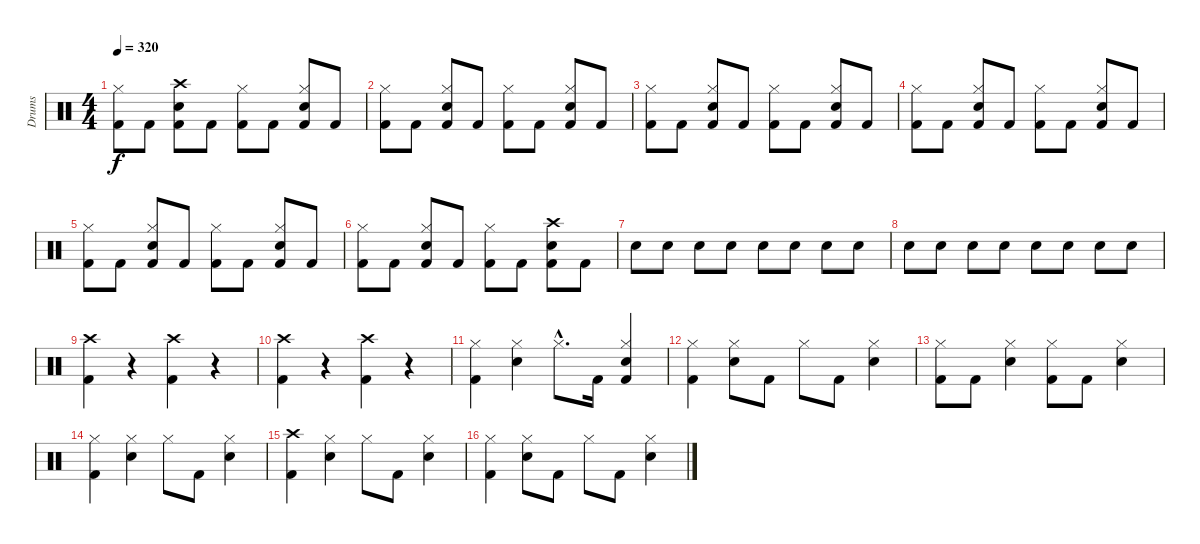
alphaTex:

\track ("Drums" "Drums") {instrument percussion}
\staff {score}
\articulation defaults
\ts (4 4)
\tempo 320
\clef neutral
\ks c
("Kick (hit) 2" "Hi-Hat (closed)").8{dy f} "Kick (hit) 2".8 ("Snare (hit) 2" "Crash high (hit)" "Kick (hit) 2").8 "Kick (hit) 2".8 ("Hi-Hat (closed)" "Kick (hit) 2").8 "Kick (hit) 2".8 ("Snare (hit) 2" "Kick (hit) 2" "Hi-Hat (closed)").8 "Kick (hit) 2".8 |
("Hi-Hat (closed)" "Kick (hit) 2").8 "Kick (hit) 2".8 ("Snare (hit) 2" "Hi-Hat (closed)" "Kick (hit) 2").8 "Kick (hit) 2".8 ("Kick (hit) 2" "Hi-Hat (closed)").8 "Kick (hit) 2".8 ("Kick (hit) 2" "Snare (hit) 2" "Hi-Hat (closed)").8 "Kick (hit) 2".8 |
("Kick (hit) 2" "Hi-Hat (closed)").8 "Kick (hit) 2".8 ("Hi-Hat (closed)" "Snare (hit) 2" "Kick (hit) 2").8 "Kick (hit) 2".8 ("Hi-Hat (closed)" "Kick (hit) 2").8 "Kick (hit) 2".8 ("Kick (hit) 2" "Hi-Hat (closed)" "Snare (hit) 2").8 "Kick (hit) 2".8 |
("Kick (hit) 2" "Hi-Hat (closed)").8 "Kick (hit) 2".8 ("Hi-Hat (closed)" "Snare (hit) 2" "Kick (hit) 2").8 "Kick (hit) 2".8 ("Hi-Hat (closed)" "Kick (hit) 2").8 "Kick (hit) 2".8 ("Kick (hit) 2" "Snare (hit) 2" "Hi-Hat (closed)").8 "Kick (hit) 2".8 |
("Kick (hit) 2" "Hi-Hat (closed)").8 "Kick (hit) 2".8 ("Snare (hit) 2" "Kick (hit) 2" "Hi-Hat (closed)").8 "Kick (hit) 2".8 ("Hi-Hat (closed)" "Kick (hit) 2").8 "Kick (hit) 2".8 ("Hi-Hat (closed)" "Kick (hit) 2" "Snare (hit) 2").8 "Kick (hit) 2".8 |
("Kick (hit) 2" "Hi-Hat (closed)").8 "Kick (hit) 2".8 ("Snare (hit) 2" "Kick (hit) 2" "Hi-Hat (closed)").8 "Kick (hit) 2".8 ("Hi-Hat (closed)" "Kick (hit) 2").8 "Kick (hit) 2".8 ("Snare (hit) 2" "Crash high (hit)" "Kick (hit) 2").8 "Kick (hit) 2".8 |
"Snare (hit) 2".8 "Snare (hit) 2".8 "Snare (hit) 2".8 "Snare (hit) 2".8 "Snare (hit) 2".8 "Snare (hit) 2".8 "Snare (hit) 2".8 "Snare (hit) 2".8 |
"Snare (hit) 2".8 "Snare (hit) 2".8 "Snare (hit) 2".8 "Snare (hit) 2".8 "Snare (hit) 2".8 "Snare (hit) 2".8 "Snare (hit) 2".8 "Snare (hit) 2".8 |
("Kick (hit) 2" "Crash high (hit)").4 r.4 ("Kick (hit) 2" "Crash high (hit)").4 r.4 |
("Kick (hit) 2" "Crash high (hit)").4 r.4 ("Kick (hit) 2" "Crash high (hit)").4 r.4 |
("Hi-Hat (closed)" "Kick (hit) 2").4 ("Snare (hit) 2" "Hi-Hat (closed)").4 "Hi-Hat (closed)"{hac}.8{d} "Kick (hit) 2".16 ("Kick (hit) 2" "Hi-Hat (closed)" "Snare (hit) 2").4 |
("Kick (hit) 2" "Hi-Hat (closed)").4 ("Snare (hit) 2" "Hi-Hat (closed)").8 "Kick (hit) 2".8 "Hi-Hat (closed)".8 "Kick (hit) 2".8 ("Hi-Hat (closed)" "Snare (hit) 2").4 |
("Hi-Hat (closed)" "Kick (hit) 2").8 "Kick (hit) 2".8 ("Hi-Hat (closed)" "Snare (hit) 2").4 ("Hi-Hat (closed)" "Kick (hit) 2").8 "Kick (hit) 2".8 ("Hi-Hat (closed)" "Snare (hit) 2").4 |
("Hi-Hat (closed)" "Kick (hit) 2").4 ("Snare (hit) 2" "Hi-Hat (closed)").4 "Hi-Hat (closed)".8 "Kick (hit) 2".8 ("Hi-Hat (closed)" "Snare (hit) 2").4 |
("Crash high (hit)" "Kick (hit) 2").4 ("Hi-Hat (closed)" "Snare (hit) 2").4 "Hi-Hat (closed)".8 "Kick (hit) 2".8 ("Hi-Hat (closed)" "Snare (hit) 2").4 |
("Hi-Hat (closed)" "Kick (hit) 2").4 ("Hi-Hat (closed)" "Snare (hit) 2").8 "Kick (hit) 2".8 "Hi-Hat (closed)".8 "Kick (hit) 2".8 ("Hi-Hat (closed)" "Snare (hit) 2").4
